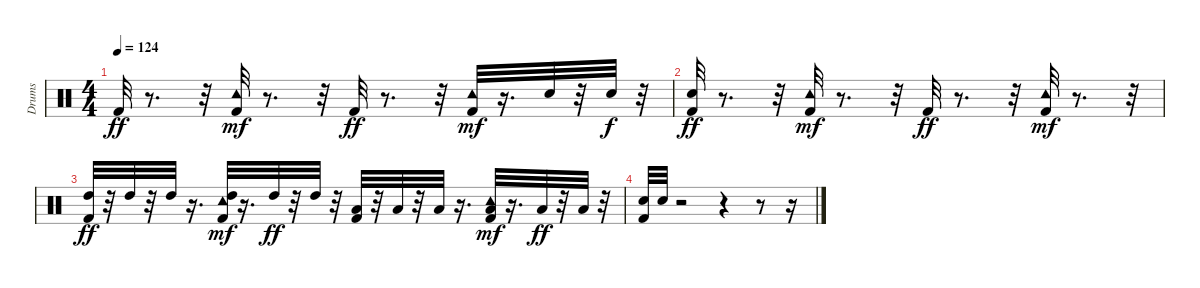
\track ("Drums" "Drums") {instrument percussion}
\staff {score}
\articulation defaults
\ts (4 4)
\tempo 124
\clef neutral
\ks c "Kick (hit) 2".32{dy ff}
r.8{d} r.32 ("Kick (hit) 2" "Tambourine (hit)").32{dy mf} r.8{d} r.32 "Kick (hit) 2".32{dy ff} r.8{d} r.32 ("Kick (hit) 2" "Tambourine (hit)").32{dy mf} r.16{d} "Electric Snare (hit)".32 r.32 "Electric Snare (hit)".32{dy f} r.32 |
("Kick (hit) 2" "Electric Snare (hit)").32{dy ff} r.8{d} r.32 ("Kick (hit) 2" "Tambourine (hit)").32{dy mf} r.8{d} r.32 "Kick (hit) 2".32{dy ff} r.8{d} r.32 ("Kick (hit) 2" "Tambourine (hit)").32{dy mf} r.8{d} r.32 |
("Kick (hit) 2" "High Tom (hit)").32{dy ff} r.32 "High Tom (hit)".32 r.32 "High Tom (hit)".32 r.16{d} ("Kick (hit) 2" "High Tom (hit)" "Tambourine (hit)").32{dy mf} r.16{d} "High Tom (hit)".32{dy ff} r.32 "High Tom (hit)".32 r.32 ("Kick (hit) 2" "Low Tom (hit)").32 r.32 "Low Tom (hit)".32 r.32 "Low Floor Tom (hit)".32 r.16{d} ("Kick (hit) 2" "Low Floor Tom (hit)" "Tambourine (hit)").32{dy mf} r.16{d} "Low Floor Tom (hit)".32{dy ff} r.32 "Low Floor Tom (hit)".32 r.32 |
("Kick (hit) 2" "Electric Snare (hit)").32 "Electric Snare (hit)".32 r.2 r.4 r.8 r.16
